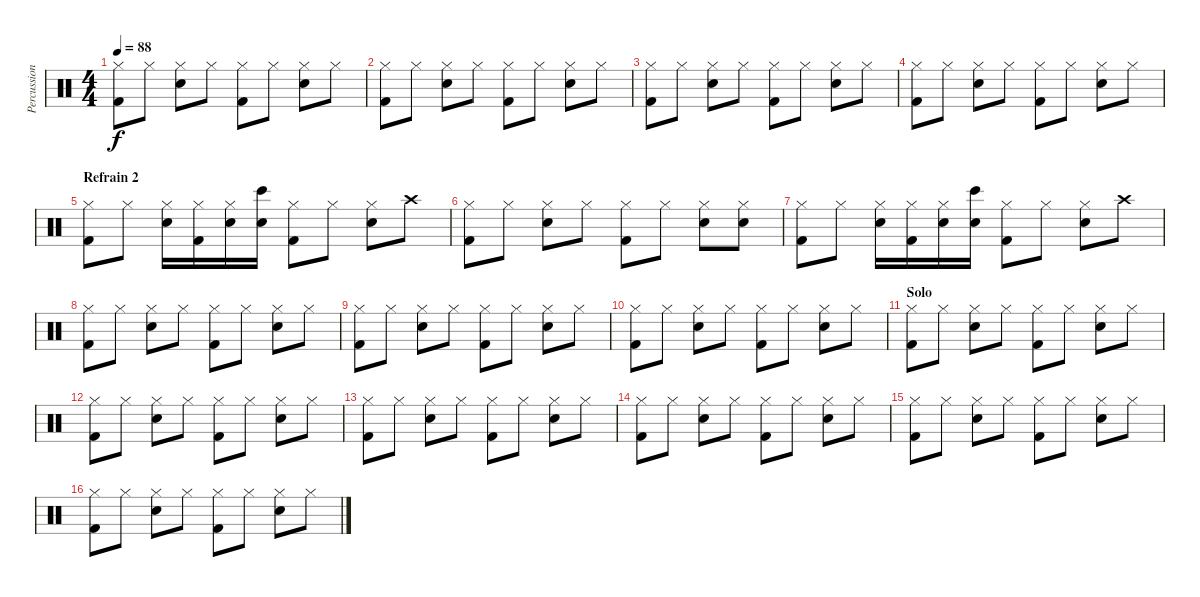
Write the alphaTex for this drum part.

\track ("Percussions" "Percussion") {instrument percussion}
\staff {score}
\articulation defaults
\ts (4 4)
\tempo 88
\clef neutral
\ks c
("Hi-Hat (closed)" "Kick (hit) 2").8{dy f} "Hi-Hat (closed)".8 ("Hi-Hat (closed)" "Snare (hit) 2").8 "Hi-Hat (closed)".8 ("Hi-Hat (closed)" "Kick (hit) 2").8 "Hi-Hat (closed)".8 ("Hi-Hat (closed)" "Snare (hit) 2").8 "Hi-Hat (closed)".8 |
("Hi-Hat (closed)" "Kick (hit) 2").8 "Hi-Hat (closed)".8 ("Hi-Hat (closed)" "Snare (hit) 2").8 "Hi-Hat (closed)".8 ("Hi-Hat (closed)" "Kick (hit) 2").8 "Hi-Hat (closed)".8 ("Hi-Hat (closed)" "Snare (hit) 2").8 "Hi-Hat (closed)".8 |
("Hi-Hat (closed)" "Kick (hit) 2").8 "Hi-Hat (closed)".8 ("Hi-Hat (closed)" "Snare (hit) 2").8 "Hi-Hat (closed)".8 ("Hi-Hat (closed)" "Kick (hit) 2").8 "Hi-Hat (closed)".8 ("Hi-Hat (closed)" "Snare (hit) 2").8 "Hi-Hat (closed)".8 |
("Hi-Hat (closed)" "Kick (hit) 2").8 "Hi-Hat (closed)".8 ("Hi-Hat (closed)" "Snare (hit) 2").8 "Hi-Hat (closed)".8 ("Hi-Hat (closed)" "Kick (hit) 2").8 "Hi-Hat (closed)".8 ("Hi-Hat (closed)" "Snare (hit) 2").8 "Hi-Hat (closed)".8 |
\section ("" "Refrain 2 ")
("Hi-Hat (closed)" "Kick (hit) 2").8 "Hi-Hat (closed)".8 ("Hi-Hat (closed)" "Snare (hit) 2").16 ("Hi-Hat (closed)" "Kick (hit) 2").16 ("Hi-Hat (closed)" "Snare (hit) 2").16 ("Bongo High (hit)" "Snare (hit) 2").16 ("Hi-Hat (closed)" "Kick (hit) 2").8 "Hi-Hat (closed)".8 ("Hi-Hat (closed)" "Snare (hit) 2").8 "Crash high (hit)".8 |
("Hi-Hat (closed)" "Kick (hit) 2").8 "Hi-Hat (closed)".8 ("Hi-Hat (closed)" "Snare (hit) 2").8 "Hi-Hat (closed)".8 ("Hi-Hat (closed)" "Kick (hit) 2").8 "Hi-Hat (closed)".8 ("Hi-Hat (closed)" "Snare (hit) 2").8 ("Hi-Hat (closed)" "Snare (hit) 2").8 |
("Hi-Hat (closed)" "Kick (hit) 2").8 "Hi-Hat (closed)".8 ("Hi-Hat (closed)" "Snare (hit) 2").16 ("Hi-Hat (closed)" "Kick (hit) 2").16 ("Hi-Hat (closed)" "Snare (hit) 2").16 ("Bongo High (hit)" "Snare (hit) 2").16 ("Hi-Hat (closed)" "Kick (hit) 2").8 "Hi-Hat (closed)".8 ("Hi-Hat (closed)" "Snare (hit) 2").8 "Crash high (hit)".8 |
("Hi-Hat (closed)" "Kick (hit) 2").8 "Hi-Hat (closed)".8 ("Hi-Hat (closed)" "Snare (hit) 2").8 "Hi-Hat (closed)".8 ("Hi-Hat (closed)" "Kick (hit) 2").8 "Hi-Hat (closed)".8 ("Hi-Hat (closed)" "Snare (hit) 2").8 "Hi-Hat (closed)".8 |
("Hi-Hat (closed)" "Kick (hit) 2").8 "Hi-Hat (closed)".8 ("Hi-Hat (closed)" "Snare (hit) 2").8 "Hi-Hat (closed)".8 ("Hi-Hat (closed)" "Kick (hit) 2").8 "Hi-Hat (closed)".8 ("Hi-Hat (closed)" "Snare (hit) 2").8 "Hi-Hat (closed)".8 |
("Hi-Hat (closed)" "Kick (hit) 2").8 "Hi-Hat (closed)".8 ("Hi-Hat (closed)" "Snare (hit) 2").8 "Hi-Hat (closed)".8 ("Hi-Hat (closed)" "Kick (hit) 2").8 "Hi-Hat (closed)".8 ("Hi-Hat (closed)" "Snare (hit) 2").8 "Hi-Hat (closed)".8 |
\section ("" "Solo")
("Hi-Hat (closed)" "Kick (hit) 2").8 "Hi-Hat (closed)".8 ("Hi-Hat (closed)" "Snare (hit) 2").8 "Hi-Hat (closed)".8 ("Hi-Hat (closed)" "Kick (hit) 2").8 "Hi-Hat (closed)".8 ("Hi-Hat (closed)" "Snare (hit) 2").8 "Hi-Hat (closed)".8 |
("Hi-Hat (closed)" "Kick (hit) 2").8 "Hi-Hat (closed)".8 ("Hi-Hat (closed)" "Snare (hit) 2").8 "Hi-Hat (closed)".8 ("Hi-Hat (closed)" "Kick (hit) 2").8 "Hi-Hat (closed)".8 ("Hi-Hat (closed)" "Snare (hit) 2").8 "Hi-Hat (closed)".8 |
("Hi-Hat (closed)" "Kick (hit) 2").8 "Hi-Hat (closed)".8 ("Hi-Hat (closed)" "Snare (hit) 2").8 "Hi-Hat (closed)".8 ("Hi-Hat (closed)" "Kick (hit) 2").8 "Hi-Hat (closed)".8 ("Hi-Hat (closed)" "Snare (hit) 2").8 "Hi-Hat (closed)".8 |
("Hi-Hat (closed)" "Kick (hit) 2").8 "Hi-Hat (closed)".8 ("Hi-Hat (closed)" "Snare (hit) 2").8 "Hi-Hat (closed)".8 ("Hi-Hat (closed)" "Kick (hit) 2").8 "Hi-Hat (closed)".8 ("Hi-Hat (closed)" "Snare (hit) 2").8 "Hi-Hat (closed)".8 |
("Hi-Hat (closed)" "Kick (hit) 2").8 "Hi-Hat (closed)".8 ("Hi-Hat (closed)" "Snare (hit) 2").8 "Hi-Hat (closed)".8 ("Hi-Hat (closed)" "Kick (hit) 2").8 "Hi-Hat (closed)".8 ("Hi-Hat (closed)" "Snare (hit) 2").8 "Hi-Hat (closed)".8 |
("Hi-Hat (closed)" "Kick (hit) 2").8 "Hi-Hat (closed)".8 ("Hi-Hat (closed)" "Snare (hit) 2").8 "Hi-Hat (closed)".8 ("Hi-Hat (closed)" "Kick (hit) 2").8 "Hi-Hat (closed)".8 ("Hi-Hat (closed)" "Snare (hit) 2").8 "Hi-Hat (closed)".8
